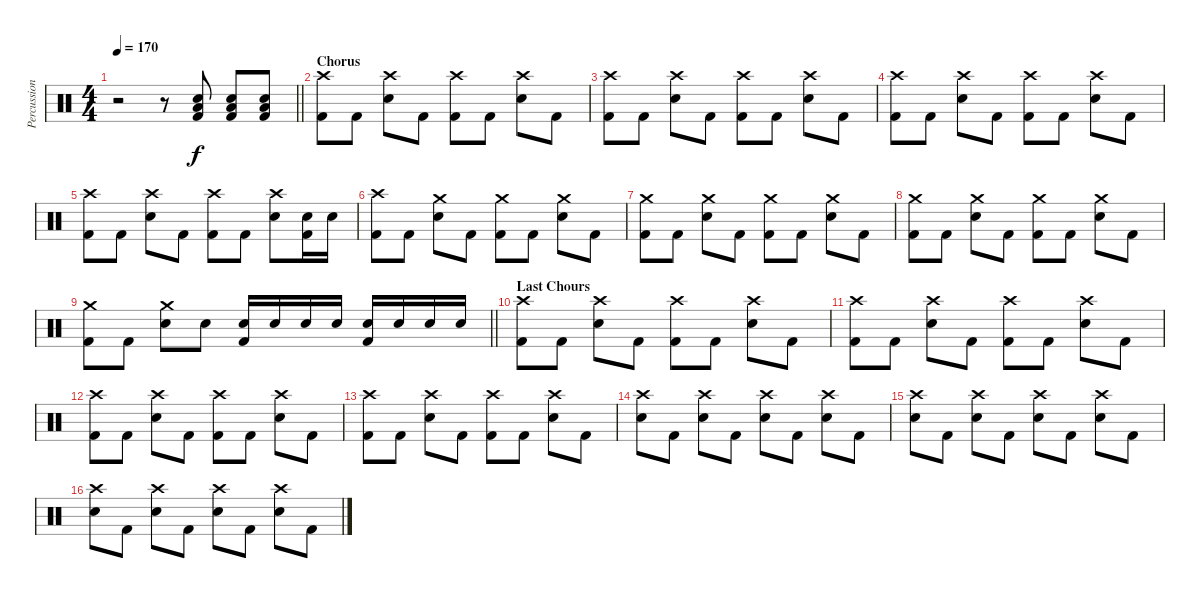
\track ("Percussion" "Percussion") {instrument percussion}
\staff {score}
\articulation defaults
\ts (4 4)
\tempo 170
\clef neutral
\barLineRight lightlight
\ks c
r.2{dy f} r.8 ("Kick (hit) 2" "Electric Snare (hit)" "Low Floor Tom (hit)").8 ("Kick (hit) 2" "Electric Snare (hit)" "Low Floor Tom (hit)").8 ("Kick (hit) 2" "Electric Snare (hit)" "Low Floor Tom (hit)").8 |
\section ("" "Chorus")
("Crash high (hit)" "Kick (hit) 2").8 "Kick (hit) 2".8 ("Crash high (hit)" "Electric Snare (hit)").8 "Kick (hit) 2".8 ("Crash high (hit)" "Kick (hit) 2").8 "Kick (hit) 2".8 ("Crash high (hit)" "Electric Snare (hit)").8 "Kick (hit) 2".8 |
("Crash high (hit)" "Kick (hit) 2").8 "Kick (hit) 2".8 ("Crash high (hit)" "Electric Snare (hit)").8 "Kick (hit) 2".8 ("Crash high (hit)" "Kick (hit) 2").8 "Kick (hit) 2".8 ("Crash high (hit)" "Electric Snare (hit)").8 "Kick (hit) 2".8 |
("Crash high (hit)" "Kick (hit) 2").8 "Kick (hit) 2".8 ("Crash high (hit)" "Electric Snare (hit)").8 "Kick (hit) 2".8 ("Crash high (hit)" "Kick (hit) 2").8 "Kick (hit) 2".8 ("Crash high (hit)" "Electric Snare (hit)").8 "Kick (hit) 2".8 |
("Crash high (hit)" "Kick (hit) 2").8 "Kick (hit) 2".8 ("Crash high (hit)" "Electric Snare (hit)").8 "Kick (hit) 2".8 ("Crash high (hit)" "Kick (hit) 2").8 "Kick (hit) 2".8 ("Crash high (hit)" "Electric Snare (hit)").8 ("Kick (hit) 2" "Electric Snare (hit)").16 "Electric Snare (hit)".16 |
("Crash high (hit)" "Kick (hit) 2").8 "Kick (hit) 2".8 ("Crash medium (hit)" "Electric Snare (hit)").8 "Kick (hit) 2".8 ("Crash medium (hit)" "Kick (hit) 2").8 "Kick (hit) 2".8 ("Crash medium (hit)" "Electric Snare (hit)").8 "Kick (hit) 2".8 |
("Crash medium (hit)" "Kick (hit) 2").8 "Kick (hit) 2".8 ("Crash medium (hit)" "Electric Snare (hit)").8 "Kick (hit) 2".8 ("Crash medium (hit)" "Kick (hit) 2").8 "Kick (hit) 2".8 ("Crash medium (hit)" "Electric Snare (hit)").8 "Kick (hit) 2".8 |
("Crash medium (hit)" "Kick (hit) 2").8 "Kick (hit) 2".8 ("Crash medium (hit)" "Electric Snare (hit)").8 "Kick (hit) 2".8 ("Crash medium (hit)" "Kick (hit) 2").8 "Kick (hit) 2".8 ("Crash medium (hit)" "Electric Snare (hit)").8 "Kick (hit) 2".8 |
\barLineRight lightlight
("Crash medium (hit)" "Kick (hit) 2").8 "Kick (hit) 2".8 ("Crash medium (hit)" "Electric Snare (hit)").8 "Electric Snare (hit)".8 ("Electric Snare (hit)" "Kick (hit) 2").16 "Electric Snare (hit)".16 "Electric Snare (hit)".16 "Electric Snare (hit)".16 ("Electric Snare (hit)" "Kick (hit) 2").16 "Electric Snare (hit)".16 "Electric Snare (hit)".16 "Electric Snare (hit)".16 |
\section ("" "Last Chours")
("Crash high (hit)" "Kick (hit) 2").8 "Kick (hit) 2".8 ("Crash high (hit)" "Electric Snare (hit)").8 "Kick (hit) 2".8 ("Crash high (hit)" "Kick (hit) 2").8 "Kick (hit) 2".8 ("Crash high (hit)" "Electric Snare (hit)").8 "Kick (hit) 2".8 |
("Crash high (hit)" "Kick (hit) 2").8 "Kick (hit) 2".8 ("Crash high (hit)" "Electric Snare (hit)").8 "Kick (hit) 2".8 ("Crash high (hit)" "Kick (hit) 2").8 "Kick (hit) 2".8 ("Crash high (hit)" "Electric Snare (hit)").8 "Kick (hit) 2".8 |
("Crash high (hit)" "Kick (hit) 2").8 "Kick (hit) 2".8 ("Crash high (hit)" "Electric Snare (hit)").8 "Kick (hit) 2".8 ("Crash high (hit)" "Kick (hit) 2").8 "Kick (hit) 2".8 ("Crash high (hit)" "Electric Snare (hit)").8 "Kick (hit) 2".8 |
("Crash high (hit)" "Kick (hit) 2").8 "Kick (hit) 2".8 ("Crash high (hit)" "Electric Snare (hit)").8 "Kick (hit) 2".8 ("Crash high (hit)" "Kick (hit) 2").8 "Kick (hit) 2".8 ("Crash high (hit)" "Electric Snare (hit)").8 "Kick (hit) 2".8 |
("Crash high (hit)" "Electric Snare (hit)").8 "Kick (hit) 2".8 ("Crash high (hit)" "Electric Snare (hit)").8 "Kick (hit) 2".8 ("Crash high (hit)" "Electric Snare (hit)").8 "Kick (hit) 2".8 ("Crash high (hit)" "Electric Snare (hit)").8 "Kick (hit) 2".8 |
("Crash high (hit)" "Electric Snare (hit)").8 "Kick (hit) 2".8 ("Crash high (hit)" "Electric Snare (hit)").8 "Kick (hit) 2".8 ("Crash high (hit)" "Electric Snare (hit)").8 "Kick (hit) 2".8 ("Crash high (hit)" "Electric Snare (hit)").8 "Kick (hit) 2".8 |
("Crash high (hit)" "Electric Snare (hit)").8 "Kick (hit) 2".8 ("Crash high (hit)" "Electric Snare (hit)").8 "Kick (hit) 2".8 ("Crash high (hit)" "Electric Snare (hit)").8 "Kick (hit) 2".8 ("Crash high (hit)" "Electric Snare (hit)").8 "Kick (hit) 2".8
